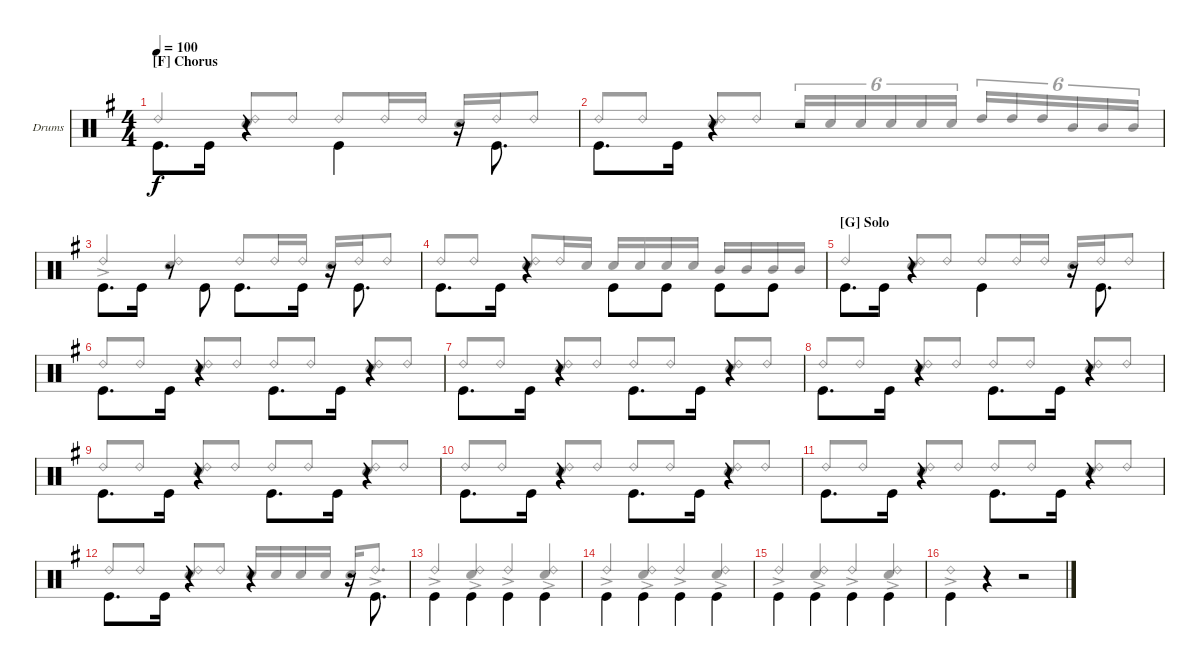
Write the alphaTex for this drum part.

\defaultSystemsLayout 4
\bracketExtendMode groupsimilarinstruments
\firstSystemTrackNameOrientation horizontal
\otherSystemsTrackNameOrientation horizontal
\track ("Drumkit" "Drums") {instrument percussion}
\staff {score}
\articulation defaults
\voice
\ts (4 4)
\section ("F" "Chorus")
\scale
0.5
\tempo 100
\accidentals auto
\clef neutral
\ottava regular
\simile none
\scale
1.04288
\ks g "Kick (hit)".8{d dy f beam invert} "Kick (hit)".16
r.4{beam invert} "Kick (hit)".4{beam invert} r.16{beam invert} "Kick (hit)".8{d beam invert} |
\scale
0.5
\scale
0.957125 "Kick (hit)".8{d beam invert} "Kick (hit)".16 r.4{beam invert} r.2 |
\scale
0.5
\scale
1.04288 "Kick (hit)".8{d} "Kick (hit)".16{beam invert} r.8 "Kick (hit)".8{beam invert} "Kick (hit)".8{d beam invert} "Kick (hit)".16 r.16{beam invert} "Kick (hit)".8{d beam invert} |
\scale
0.5
\scale
0.957125 "Kick (hit)".8{d beam invert} "Kick (hit)".16 r.4 "Kick (hit)".8{beam invert} "Kick (hit)".8 "Kick (hit)".8{beam invert} "Kick (hit)".8 |
\section ("G" "Solo")
\scale
0.5
\scale
1.04288 "Kick (hit)".8{d beam invert} "Kick (hit)".16 r.4{beam invert} "Kick (hit)".4{beam invert} r.16{beam invert} "Kick (hit)".8{d beam invert} |
\scale
0.5
\scale
0.957125 "Kick (hit)".8{d beam invert} "Kick (hit)".16 r.4 "Kick (hit)".8{d beam invert} "Kick (hit)".16 r.4 |
\scale
0.5
\scale
1.04288 "Kick (hit)".8{d beam invert} "Kick (hit)".16 r.4 "Kick (hit)".8{d beam invert} "Kick (hit)".16 r.4 |
\scale
0.5
\scale
0.957125 "Kick (hit)".8{d beam invert} "Kick (hit)".16 r.4 "Kick (hit)".8{d beam invert} "Kick (hit)".16 r.4 |
\scale
0.5
\scale
1.04288 "Kick (hit)".8{d beam invert} "Kick (hit)".16 r.4 "Kick (hit)".8{d beam invert} "Kick (hit)".16 r.4 |
\scale
0.5
\scale
0.957125 "Kick (hit)".8{d beam invert} "Kick (hit)".16 r.4 "Kick (hit)".8{d beam invert} "Kick (hit)".16 r.4 |
\scale
0.5
\scale
1.04288 "Kick (hit)".8{d beam invert} "Kick (hit)".16 r.4 "Kick (hit)".8{d beam invert} "Kick (hit)".16 r.4 |
\scale
0.5
\scale
0.957125 "Kick (hit)".8{d beam invert} "Kick (hit)".16 r.4 r.4{beam invert} r.16 "Kick (hit)".8{d beam invert} |
\scale
0.5
\scale
1.04288 "Kick (hit)".4{beam invert} "Kick (hit)".4{beam invert} "Kick (hit)".4{beam invert} "Kick (hit)".4{beam invert} |
\scale
0.5
\scale
0.957125 "Kick (hit)".4{beam invert} "Kick (hit)".4{beam invert} "Kick (hit)".4{beam invert} "Kick (hit)".4{beam invert} |
\scale
0.5
\scale
1.04288 "Kick (hit)".4{beam invert} "Kick (hit)".4{beam invert} "Kick (hit)".4{beam invert} "Kick (hit)".4{beam invert} |
\scale
0.5
\scale
0.957125 "Kick (hit)".4{beam invert} r.4 r.2
\voice
\clef neutral
\ottava regular
\simile none
\scale
1.04288
\ks g "Ride (bell) 2".4{dy f beam invert}
("Ride (bell) 2" "Snare (hit) 2").8 "Ride (bell) 2".8{beam invert} "Ride (bell) 2".8{beam invert} "Ride (bell) 2".16 "Ride (bell) 2".16 "Snare (hit) 2".16{beam invert} "Ride (bell) 2".16{beam invert} "Ride (bell) 2".8{beam invert} |
\scale
0.957125 "Ride (bell) 2".8{beam invert} "Ride (bell) 2".8 ("Ride (bell) 2" "Snare (hit) 2").8{beam invert} "Ride (bell) 2".8 "Snare (hit) 2".16{tu (6 4) beam invert} "Snare (hit) 2".16{tu (6 4)} "Snare (hit) 2".16{tu (6 4)} "Snare (hit) 2".16{tu (6 4)} "Snare (hit) 2".16{tu (6 4)} "Snare (hit) 2".16{tu (6 4)} "High Tom (hit)".16{tu (6 4)} "High Tom (hit)".16{tu (6 4) beam invert} "High Tom (hit)".16{tu (6 4)} "Mid Tom (hit)".16{tu (6 4)} "Mid Tom (hit)".16{tu (6 4)} "Mid Tom (hit)".16{tu (6 4)} |
\scale
1.04288 "Ride (bell) 2"{ac}.4{beam invert} ("Ride (bell) 2" "Snare (hit) 2").4{beam invert} "Ride (bell) 2".8{beam invert} "Ride (bell) 2".16 "Ride (bell) 2".16 "Snare (hit) 2".16{beam invert} "Ride (bell) 2".16 "Ride (bell) 2".8 |
\scale
0.957125 "Ride (bell) 2".8{beam invert} "Ride (bell) 2".8 ("Ride (bell) 2" "Snare (hit) 2").8{beam invert} "Ride (bell) 2".16 "Snare (hit) 2".16 "Snare (hit) 2".16{beam invert} "Snare (hit) 2".16 "Snare (hit) 2".16 "Snare (hit) 2".16 "Mid Tom (hit)".16{beam invert} "Mid Tom (hit)".16 "Mid Tom (hit)".16 "Mid Tom (hit)".16 |
\scale
1.04288 "Ride (bell) 2".4{beam invert} ("Ride (bell) 2" "Snare (hit) 2").8{beam invert} "Ride (bell) 2".8 "Ride (bell) 2".8{beam invert} "Ride (bell) 2".16 "Ride (bell) 2".16 "Snare (hit) 2".16{beam invert} "Ride (bell) 2".16{beam invert} "Ride (bell) 2".8{beam invert} |
\scale
0.957125 "Ride (bell) 2".8{beam invert} "Ride (bell) 2".8 ("Ride (bell) 2" "Snare (hit) 2").8{beam invert} "Ride (bell) 2".8 "Ride (bell) 2".8{beam invert} "Ride (bell) 2".8 ("Ride (bell) 2" "Snare (hit) 2").8{beam invert} "Ride (bell) 2".8 |
\scale
1.04288 "Ride (bell) 2".8{beam invert} "Ride (bell) 2".8 ("Ride (bell) 2" "Snare (hit) 2").8{beam invert} "Ride (bell) 2".8 "Ride (bell) 2".8{beam invert} "Ride (bell) 2".8 ("Ride (bell) 2" "Snare (hit) 2").8{beam invert} "Ride (bell) 2".8 |
\scale
0.957125 "Ride (bell) 2".8{beam invert} "Ride (bell) 2".8 ("Ride (bell) 2" "Snare (hit) 2").8{beam invert} "Ride (bell) 2".8 "Ride (bell) 2".8{beam invert} "Ride (bell) 2".8 ("Ride (bell) 2" "Snare (hit) 2").8{beam invert} "Ride (bell) 2".8 |
\scale
1.04288 "Ride (bell) 2".8 "Ride (bell) 2".8{beam invert} ("Ride (bell) 2" "Snare (hit) 2").8{beam invert} "Ride (bell) 2".8 "Ride (bell) 2".8{beam invert} "Ride (bell) 2".8 ("Ride (bell) 2" "Snare (hit) 2").8{beam invert} "Ride (bell) 2".8 |
\scale
0.957125 "Ride (bell) 2".8{beam invert} "Ride (bell) 2".8 ("Ride (bell) 2" "Snare (hit) 2").8{beam invert} "Ride (bell) 2".8 "Ride (bell) 2".8{beam invert} "Ride (bell) 2".8 ("Ride (bell) 2" "Snare (hit) 2").8{beam invert} "Ride (bell) 2".8 |
\scale
1.04288 "Ride (bell) 2".8 "Ride (bell) 2".8{beam invert} ("Ride (bell) 2" "Snare (hit) 2").8{beam invert} "Ride (bell) 2".8 "Ride (bell) 2".8{beam invert} "Ride (bell) 2".8 ("Ride (bell) 2" "Snare (hit) 2").8{beam invert} "Ride (bell) 2".8 |
\scale
0.957125 "Ride (bell) 2".8{beam invert} "Ride (bell) 2".8 ("Ride (bell) 2" "Snare (hit) 2").8{beam invert} "Ride (bell) 2".8 "Snare (hit) 2".16{beam invert} "Snare (hit) 2".16 "Snare (hit) 2".16 "Snare (hit) 2".16 "Snare (hit) 2".16{beam invert} "Ride (bell) 2"{ac}.8{d} |
\scale
1.04288 "Ride (bell) 2"{ac}.4{beam invert} ("Ride (bell) 2"{ac} "Snare (hit) 2"{ac}).4{beam invert} "Ride (bell) 2"{ac}.4{beam invert} ("Ride (bell) 2"{ac} "Snare (hit) 2"{ac}).4{beam invert} |
\scale
0.957125 "Ride (bell) 2"{ac}.4{beam invert} ("Ride (bell) 2"{ac} "Snare (hit) 2"{ac}).4{beam invert} "Ride (bell) 2"{ac}.4{beam invert} ("Ride (bell) 2"{ac} "Snare (hit) 2"{ac}).4{beam invert} |
\scale
1.04288 "Ride (bell) 2"{ac}.4{beam invert} ("Ride (bell) 2"{ac} "Snare (hit) 2"{ac}).4{beam invert} "Ride (bell) 2"{ac}.4{beam invert} ("Ride (bell) 2"{ac} "Snare (hit) 2"{ac}).4{beam invert} |
\scale
0.957125 "Ride (bell) 2"{ac}.1{beam invert}
